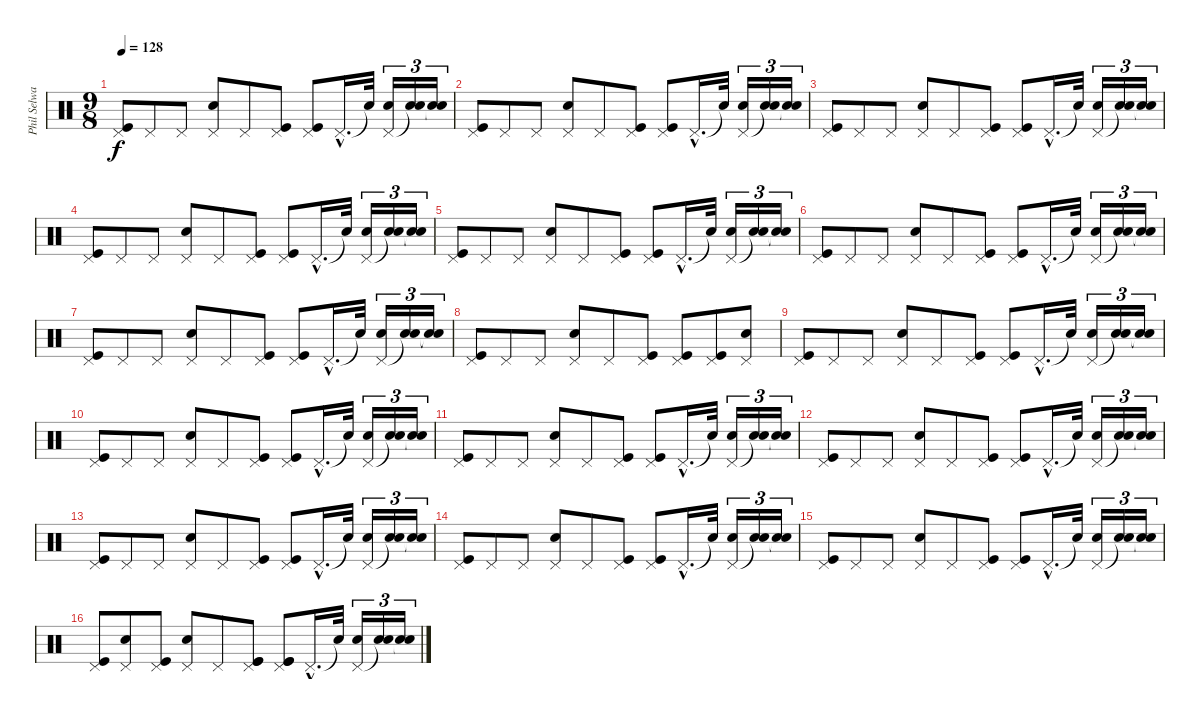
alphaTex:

\track ("Phil Selway - Drums" "Phil Selwa") {instrument percussion}
\staff {score}
\articulation defaults
\ts (9 8)
\tempo 128
\clef neutral
\ks c
("Pedal Hi-Hat (hit)" "Kick (hit)").8{dy f} "Pedal Hi-Hat (hit)".8 "Pedal Hi-Hat (hit)".8 ("Pedal Hi-Hat (hit)" "Snare (hit) 2").8 "Pedal Hi-Hat (hit)".8 ("Pedal Hi-Hat (hit)" "Kick (hit)").8 ("Pedal Hi-Hat (hit)" "Kick (hit)").8 "Pedal Hi-Hat (hit)"{hac}.16{d} "Snare (hit)"{t}.32 ("Pedal Hi-Hat (hit)" "Snare (hit) 2").16{tu (3 2)} ("Snare (hit)"{t} "Snare (hit) 2").16{tu (3 2)} ("Snare (hit)"{t} "Snare (hit) 2").16{tu (3 2)} |
("Pedal Hi-Hat (hit)" "Kick (hit)").8 "Pedal Hi-Hat (hit)".8 "Pedal Hi-Hat (hit)".8 ("Pedal Hi-Hat (hit)" "Snare (hit) 2").8 "Pedal Hi-Hat (hit)".8 ("Pedal Hi-Hat (hit)" "Kick (hit)").8 ("Pedal Hi-Hat (hit)" "Kick (hit)").8 "Pedal Hi-Hat (hit)"{hac}.16{d} "Snare (hit)"{t}.32 ("Pedal Hi-Hat (hit)" "Snare (hit) 2").16{tu (3 2)} ("Snare (hit)"{t} "Snare (hit) 2").16{tu (3 2)} ("Snare (hit)"{t} "Snare (hit) 2").16{tu (3 2)} |
("Pedal Hi-Hat (hit)" "Kick (hit)").8 "Pedal Hi-Hat (hit)".8 "Pedal Hi-Hat (hit)".8 ("Pedal Hi-Hat (hit)" "Snare (hit) 2").8 "Pedal Hi-Hat (hit)".8 ("Pedal Hi-Hat (hit)" "Kick (hit)").8 ("Pedal Hi-Hat (hit)" "Kick (hit)").8 "Pedal Hi-Hat (hit)"{hac}.16{d} "Snare (hit)"{t}.32 ("Pedal Hi-Hat (hit)" "Snare (hit) 2").16{tu (3 2)} ("Snare (hit)"{t} "Snare (hit) 2").16{tu (3 2)} ("Snare (hit)"{t} "Snare (hit) 2").16{tu (3 2)} |
("Pedal Hi-Hat (hit)" "Kick (hit)").8 "Pedal Hi-Hat (hit)".8 "Pedal Hi-Hat (hit)".8 ("Pedal Hi-Hat (hit)" "Snare (hit) 2").8 "Pedal Hi-Hat (hit)".8 ("Pedal Hi-Hat (hit)" "Kick (hit)").8 ("Pedal Hi-Hat (hit)" "Kick (hit)").8 "Pedal Hi-Hat (hit)"{hac}.16{d} "Snare (hit)"{t}.32 ("Pedal Hi-Hat (hit)" "Snare (hit) 2").16{tu (3 2)} ("Snare (hit)"{t} "Snare (hit) 2").16{tu (3 2)} ("Snare (hit)"{t} "Snare (hit) 2").16{tu (3 2)} |
("Pedal Hi-Hat (hit)" "Kick (hit)").8 "Pedal Hi-Hat (hit)".8 "Pedal Hi-Hat (hit)".8 ("Pedal Hi-Hat (hit)" "Snare (hit) 2").8 "Pedal Hi-Hat (hit)".8 ("Pedal Hi-Hat (hit)" "Kick (hit)").8 ("Pedal Hi-Hat (hit)" "Kick (hit)").8 "Pedal Hi-Hat (hit)"{hac}.16{d} "Snare (hit)"{t}.32 ("Pedal Hi-Hat (hit)" "Snare (hit) 2").16{tu (3 2)} ("Snare (hit)"{t} "Snare (hit) 2").16{tu (3 2)} ("Snare (hit)"{t} "Snare (hit) 2").16{tu (3 2)} |
("Pedal Hi-Hat (hit)" "Kick (hit)").8 "Pedal Hi-Hat (hit)".8 "Pedal Hi-Hat (hit)".8 ("Pedal Hi-Hat (hit)" "Snare (hit) 2").8 "Pedal Hi-Hat (hit)".8 ("Pedal Hi-Hat (hit)" "Kick (hit)").8 ("Pedal Hi-Hat (hit)" "Kick (hit)").8 "Pedal Hi-Hat (hit)"{hac}.16{d} "Snare (hit)"{t}.32 ("Pedal Hi-Hat (hit)" "Snare (hit) 2").16{tu (3 2)} ("Snare (hit)"{t} "Snare (hit) 2").16{tu (3 2)} ("Snare (hit)"{t} "Snare (hit) 2").16{tu (3 2)} |
("Pedal Hi-Hat (hit)" "Kick (hit)").8 "Pedal Hi-Hat (hit)".8 "Pedal Hi-Hat (hit)".8 ("Pedal Hi-Hat (hit)" "Snare (hit) 2").8 "Pedal Hi-Hat (hit)".8 ("Pedal Hi-Hat (hit)" "Kick (hit)").8 ("Pedal Hi-Hat (hit)" "Kick (hit)").8 "Pedal Hi-Hat (hit)"{hac}.16{d} "Snare (hit)"{t}.32 ("Pedal Hi-Hat (hit)" "Snare (hit) 2").16{tu (3 2)} ("Snare (hit)"{t} "Snare (hit) 2").16{tu (3 2)} ("Snare (hit)"{t} "Snare (hit) 2").16{tu (3 2)} |
("Pedal Hi-Hat (hit)" "Kick (hit)").8 "Pedal Hi-Hat (hit)".8 "Pedal Hi-Hat (hit)".8 ("Pedal Hi-Hat (hit)" "Snare (hit) 2").8 "Pedal Hi-Hat (hit)".8 ("Pedal Hi-Hat (hit)" "Kick (hit)").8 ("Pedal Hi-Hat (hit)" "Kick (hit)").8 ("Pedal Hi-Hat (hit)" "Kick (hit)").8 ("Pedal Hi-Hat (hit)" "Snare (hit) 2").8 |
("Pedal Hi-Hat (hit)" "Kick (hit)").8 "Pedal Hi-Hat (hit)".8 "Pedal Hi-Hat (hit)".8 ("Pedal Hi-Hat (hit)" "Snare (hit) 2").8 "Pedal Hi-Hat (hit)".8 ("Pedal Hi-Hat (hit)" "Kick (hit)").8 ("Pedal Hi-Hat (hit)" "Kick (hit)").8 "Pedal Hi-Hat (hit)"{hac}.16{d} "Snare (hit)"{t}.32 ("Pedal Hi-Hat (hit)" "Snare (hit) 2").16{tu (3 2)} ("Snare (hit)"{t} "Snare (hit) 2").16{tu (3 2)} ("Snare (hit)"{t} "Snare (hit) 2").16{tu (3 2)} |
("Pedal Hi-Hat (hit)" "Kick (hit)").8 "Pedal Hi-Hat (hit)".8 "Pedal Hi-Hat (hit)".8 ("Pedal Hi-Hat (hit)" "Snare (hit) 2").8 "Pedal Hi-Hat (hit)".8 ("Pedal Hi-Hat (hit)" "Kick (hit)").8 ("Pedal Hi-Hat (hit)" "Kick (hit)").8 "Pedal Hi-Hat (hit)"{hac}.16{d} "Snare (hit)"{t}.32 ("Pedal Hi-Hat (hit)" "Snare (hit) 2").16{tu (3 2)} ("Snare (hit)"{t} "Snare (hit) 2").16{tu (3 2)} ("Snare (hit)"{t} "Snare (hit) 2").16{tu (3 2)} |
("Pedal Hi-Hat (hit)" "Kick (hit)").8 "Pedal Hi-Hat (hit)".8 "Pedal Hi-Hat (hit)".8 ("Pedal Hi-Hat (hit)" "Snare (hit) 2").8 "Pedal Hi-Hat (hit)".8 ("Pedal Hi-Hat (hit)" "Kick (hit)").8 ("Pedal Hi-Hat (hit)" "Kick (hit)").8 "Pedal Hi-Hat (hit)"{hac}.16{d} "Snare (hit)"{t}.32 ("Pedal Hi-Hat (hit)" "Snare (hit) 2").16{tu (3 2)} ("Snare (hit)"{t} "Snare (hit) 2").16{tu (3 2)} ("Snare (hit)"{t} "Snare (hit) 2").16{tu (3 2)} |
("Pedal Hi-Hat (hit)" "Kick (hit)").8 "Pedal Hi-Hat (hit)".8 "Pedal Hi-Hat (hit)".8 ("Pedal Hi-Hat (hit)" "Snare (hit) 2").8 "Pedal Hi-Hat (hit)".8 ("Pedal Hi-Hat (hit)" "Kick (hit)").8 ("Pedal Hi-Hat (hit)" "Kick (hit)").8 "Pedal Hi-Hat (hit)"{hac}.16{d} "Snare (hit)"{t}.32 ("Pedal Hi-Hat (hit)" "Snare (hit) 2").16{tu (3 2)} ("Snare (hit)"{t} "Snare (hit) 2").16{tu (3 2)} ("Snare (hit)"{t} "Snare (hit) 2").16{tu (3 2)} |
("Pedal Hi-Hat (hit)" "Kick (hit)").8 "Pedal Hi-Hat (hit)".8 "Pedal Hi-Hat (hit)".8 ("Pedal Hi-Hat (hit)" "Snare (hit) 2").8 "Pedal Hi-Hat (hit)".8 ("Pedal Hi-Hat (hit)" "Kick (hit)").8 ("Pedal Hi-Hat (hit)" "Kick (hit)").8 "Pedal Hi-Hat (hit)"{hac}.16{d} "Snare (hit)"{t}.32 ("Pedal Hi-Hat (hit)" "Snare (hit) 2").16{tu (3 2)} ("Snare (hit)"{t} "Snare (hit) 2").16{tu (3 2)} ("Snare (hit)"{t} "Snare (hit) 2").16{tu (3 2)} |
("Pedal Hi-Hat (hit)" "Kick (hit)").8 "Pedal Hi-Hat (hit)".8 "Pedal Hi-Hat (hit)".8 ("Pedal Hi-Hat (hit)" "Snare (hit) 2").8 "Pedal Hi-Hat (hit)".8 ("Pedal Hi-Hat (hit)" "Kick (hit)").8 ("Pedal Hi-Hat (hit)" "Kick (hit)").8 "Pedal Hi-Hat (hit)"{hac}.16{d} "Snare (hit)"{t}.32 ("Pedal Hi-Hat (hit)" "Snare (hit) 2").16{tu (3 2)} ("Snare (hit)"{t} "Snare (hit) 2").16{tu (3 2)} ("Snare (hit)"{t} "Snare (hit) 2").16{tu (3 2)} |
("Pedal Hi-Hat (hit)" "Kick (hit)").8 "Pedal Hi-Hat (hit)".8 "Pedal Hi-Hat (hit)".8 ("Pedal Hi-Hat (hit)" "Snare (hit) 2").8 "Pedal Hi-Hat (hit)".8 ("Pedal Hi-Hat (hit)" "Kick (hit)").8 ("Pedal Hi-Hat (hit)" "Kick (hit)").8 "Pedal Hi-Hat (hit)"{hac}.16{d} "Snare (hit)"{t}.32 ("Pedal Hi-Hat (hit)" "Snare (hit) 2").16{tu (3 2)} ("Snare (hit)"{t} "Snare (hit) 2").16{tu (3 2)} ("Snare (hit)"{t} "Snare (hit) 2").16{tu (3 2)} |
("Pedal Hi-Hat (hit)" "Kick (hit)").8 ("Pedal Hi-Hat (hit)" "Snare (hit) 2").8 ("Pedal Hi-Hat (hit)" "Kick (hit)").8 ("Pedal Hi-Hat (hit)" "Snare (hit) 2").8 "Pedal Hi-Hat (hit)".8 ("Pedal Hi-Hat (hit)" "Kick (hit)" "Kick (hit)").8 ("Pedal Hi-Hat (hit)" "Kick (hit)" "Kick (hit)").8 "Pedal Hi-Hat (hit)"{hac}.16{d} "Snare (hit)"{t}.32 ("Pedal Hi-Hat (hit)" "Snare (hit) 2").16{tu (3 2)} ("Snare (hit)"{t} "Snare (hit) 2").16{tu (3 2)} ("Snare (hit)"{t} "Snare (hit) 2").16{tu (3 2)}
